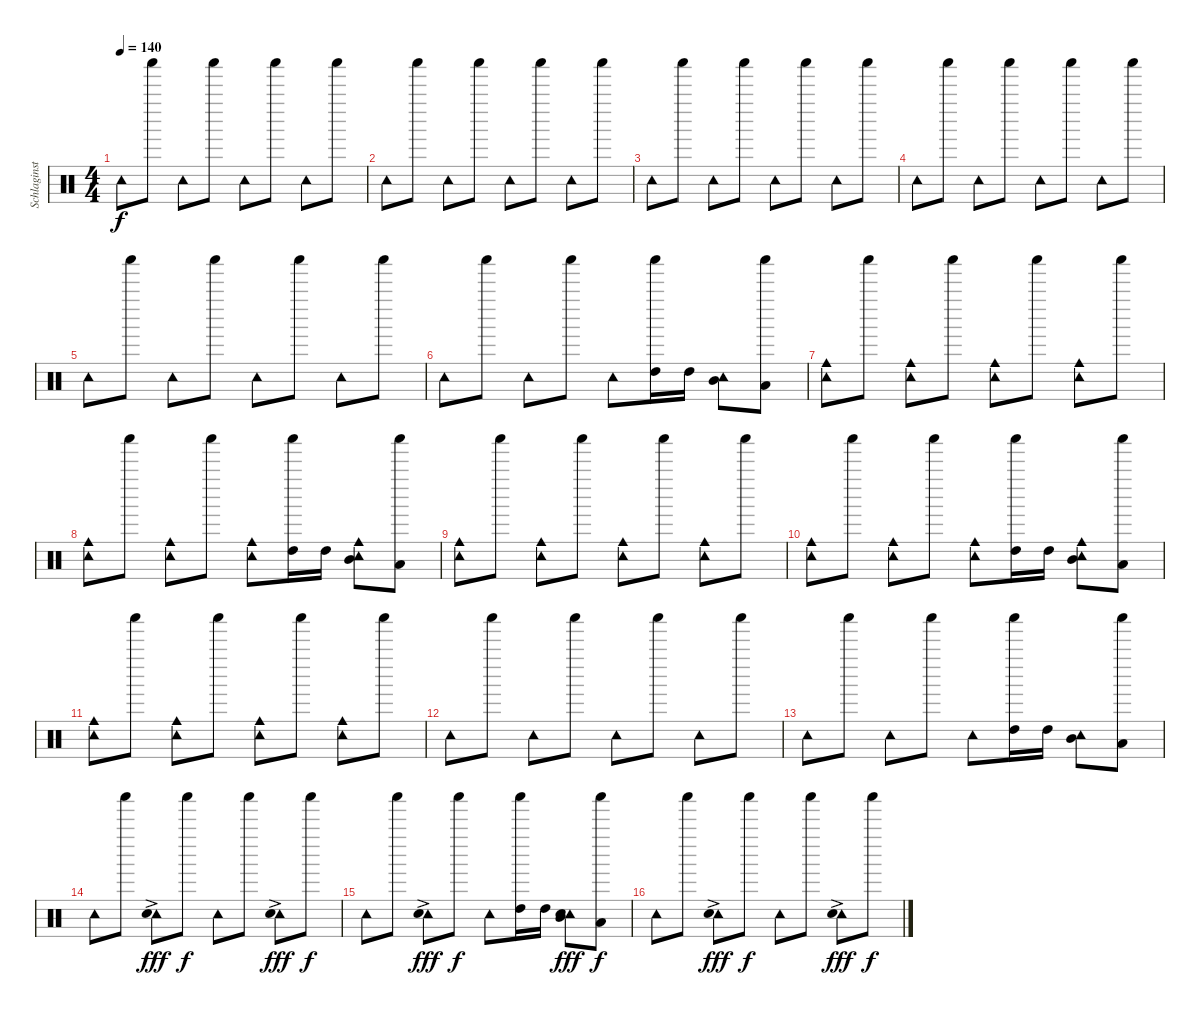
\track ("Schlaginstrumente - Auswahl" "Schlaginst") {instrument percussion}
\staff {score}
\articulation defaults
\ts (4 4)
\tempo 140
\clef neutral
\ks c "Tambourine (hit)".8{dy f} "Shaker (hit)".8 "Tambourine (hit)".8 "Shaker (hit)".8 "Tambourine (hit)".8 "Shaker (hit)".8 "Tambourine (hit)".8 "Shaker (hit)".8
|
"Tambourine (hit)".8 "Shaker (hit)".8 "Tambourine (hit)".8 "Shaker (hit)".8 "Tambourine (hit)".8 "Shaker (hit)".8 "Tambourine (hit)".8 "Shaker (hit)".8 |
"Tambourine (hit)".8 "Shaker (hit)".8 "Tambourine (hit)".8 "Shaker (hit)".8 "Tambourine (hit)".8 "Shaker (hit)".8 "Tambourine (hit)".8 "Shaker (hit)".8 |
"Tambourine (hit)".8 "Shaker (hit)".8 "Tambourine (hit)".8 "Shaker (hit)".8 "Tambourine (hit)".8 "Shaker (hit)".8 "Tambourine (hit)".8 "Shaker (hit)".8 |
"Tambourine (hit)".8 "Shaker (hit)".8 "Tambourine (hit)".8 "Shaker (hit)".8 "Tambourine (hit)".8 "Shaker (hit)".8 "Tambourine (hit)".8 "Shaker (hit)".8 |
"Tambourine (hit)".8 "Shaker (hit)".8 "Tambourine (hit)".8 "Shaker (hit)".8 "Tambourine (hit)".8 ("Shaker (hit)" "High Tom (hit)").16 "High Tom (hit)".16 ("Tambourine (hit)" "Mid Tom (hit)").8 ("Shaker (hit)" "Low Tom (hit)").8 |
("Tambourine (hit)" "Cowbell medium (hit)").8 "Shaker (hit)".8 ("Tambourine (hit)" "Cowbell medium (hit)").8 "Shaker (hit)".8 ("Tambourine (hit)" "Cowbell medium (hit)").8 "Shaker (hit)".8 ("Tambourine (hit)" "Cowbell medium (hit)").8 "Shaker (hit)".8 |
("Tambourine (hit)" "Cowbell medium (hit)").8 "Shaker (hit)".8 ("Tambourine (hit)" "Cowbell medium (hit)").8 "Shaker (hit)".8 ("Tambourine (hit)" "Cowbell medium (hit)").8 ("Shaker (hit)" "High Tom (hit)").16 "High Tom (hit)".16 ("Tambourine (hit)" "Mid Tom (hit)" "Cowbell medium (hit)").8 ("Shaker (hit)" "Low Tom (hit)").8 |
("Tambourine (hit)" "Cowbell medium (hit)").8 "Shaker (hit)".8 ("Tambourine (hit)" "Cowbell medium (hit)").8 "Shaker (hit)".8 ("Tambourine (hit)" "Cowbell medium (hit)").8 "Shaker (hit)".8 ("Tambourine (hit)" "Cowbell medium (hit)").8 "Shaker (hit)".8 |
("Tambourine (hit)" "Cowbell medium (hit)").8 "Shaker (hit)".8 ("Tambourine (hit)" "Cowbell medium (hit)").8 "Shaker (hit)".8 ("Tambourine (hit)" "Cowbell medium (hit)").8 ("Shaker (hit)" "High Tom (hit)").16 "High Tom (hit)".16 ("Tambourine (hit)" "Mid Tom (hit)" "Cowbell medium (hit)").8 ("Shaker (hit)" "Low Tom (hit)").8 |
("Tambourine (hit)" "Cowbell medium (hit)").8 "Shaker (hit)".8 ("Tambourine (hit)" "Cowbell medium (hit)").8 "Shaker (hit)".8 ("Tambourine (hit)" "Cowbell medium (hit)").8 "Shaker (hit)".8 ("Tambourine (hit)" "Cowbell medium (hit)").8 "Shaker (hit)".8 |
"Tambourine (hit)".8 "Shaker (hit)".8 "Tambourine (hit)".8 "Shaker (hit)".8 "Tambourine (hit)".8 "Shaker (hit)".8 "Tambourine (hit)".8 "Shaker (hit)".8 |
"Tambourine (hit)".8 "Shaker (hit)".8 "Tambourine (hit)".8 "Shaker (hit)".8 "Tambourine (hit)".8 ("Shaker (hit)" "High Tom (hit)").16 "High Tom (hit)".16 ("Tambourine (hit)" "Mid Tom (hit)").8 ("Shaker (hit)" "Low Tom (hit)").8 |
"Tambourine (hit)".8 "Shaker (hit)".8 ("Tambourine (hit)" "Snare (hit) 2"{ac}).8{dy fff} "Shaker (hit)".8{dy f} "Tambourine (hit)".8 "Shaker (hit)".8 ("Tambourine (hit)" "Snare (hit) 2"{ac}).8{dy fff} "Shaker (hit)".8{dy f} |
"Tambourine (hit)".8 "Shaker (hit)".8 ("Tambourine (hit)" "Snare (hit) 2"{ac}).8{dy fff} "Shaker (hit)".8{dy f} "Tambourine (hit)".8 ("Shaker (hit)" "High Tom (hit)").16 "High Tom (hit)".16 ("Tambourine (hit)" "Mid Tom (hit)" "Snare (hit) 2").8{dy fff} ("Shaker (hit)" "Low Tom (hit)").8{dy f} |
"Tambourine (hit)".8 "Shaker (hit)".8 ("Tambourine (hit)" "Snare (hit) 2"{ac}).8{dy fff} "Shaker (hit)".8{dy f} "Tambourine (hit)".8 "Shaker (hit)".8 ("Tambourine (hit)" "Snare (hit) 2"{ac}).8{dy fff} "Shaker (hit)".8{dy f}
